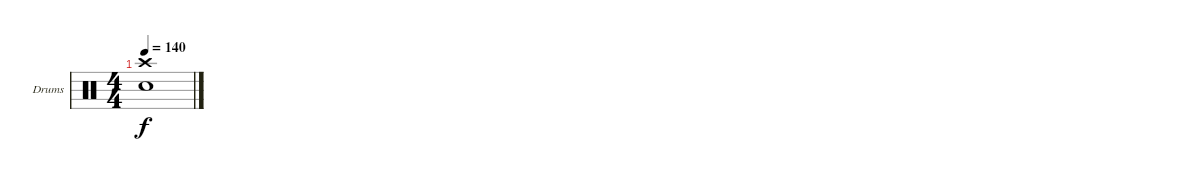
\bracketExtendMode groupsimilarinstruments
\firstSystemTrackNameOrientation horizontal
\otherSystemsTrackNameOrientation horizontal
\track ("Drumkit" "Drums") {instrument percussion}
\staff {score}
\articulation defaults
\ts (4 4)
\tempo 140
\clef neutral
\ks c
("Crash high (hit)" "Snare (hit) 2").1{dy f}
